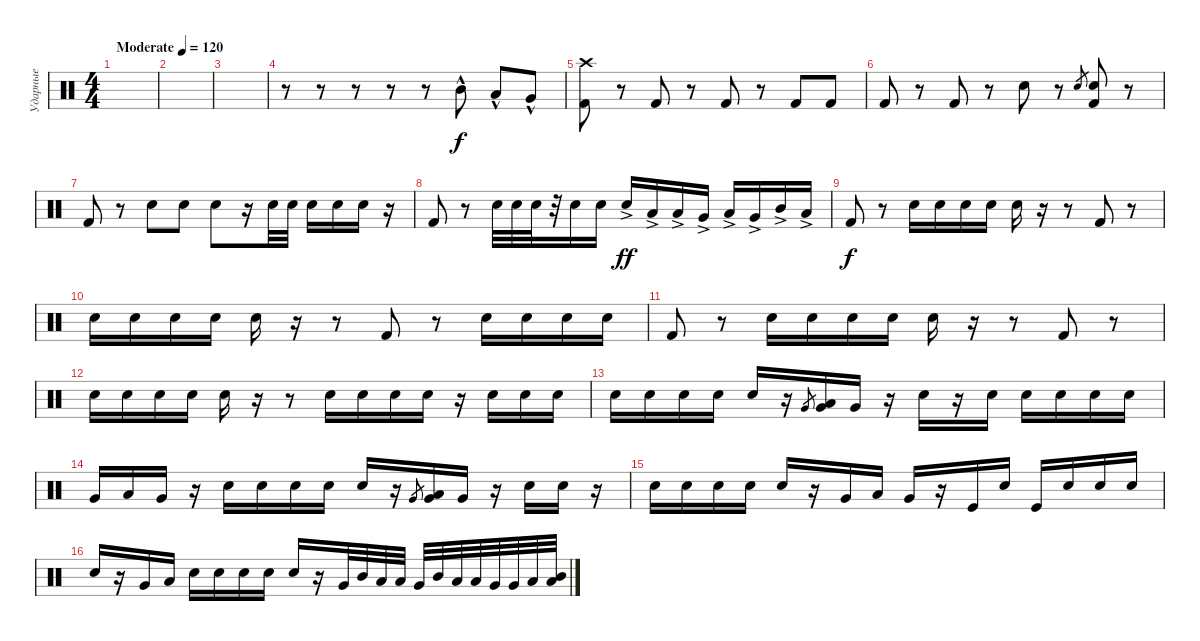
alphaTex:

\track ("Ударные" "Ударные") {instrument percussion}
\staff {score}
\articulation defaults
\ts (4 4)
\tempo (120 "Moderate")
\clef neutral
\ks c
|
|
|
r.8 r.8 r.8 r.8 r.8 "Mid Tom (hit)"{hac}.8 "Low Tom (hit)"{hac}.8 "Very Low Tom (hit)"{hac}.8 |
("Crash high (hit)" "Kick (hit) 2").8{dy f} r.8 "Kick (hit) 2".8 r.8 "Kick (hit) 2".8 r.8 "Kick (hit) 2".8 "Kick (hit) 2".8 |
"Kick (hit) 2".8 r.8 "Kick (hit) 2".8 r.8 "Snare (hit) 2".8 r.8 "Electric Snare (hit)".8{gr} ("Electric Snare (hit)" "Kick (hit) 2").8 r.8 |
"Kick (hit) 2".8 r.8 "Electric Snare (hit)".8 "Electric Snare (hit)".8 "Electric Snare (hit)".8 r.16 "Electric Snare (hit)".32 "Electric Snare (hit)".32 "Electric Snare (hit)".16 "Electric Snare (hit)".16 "Electric Snare (hit)".16 r.16 |
"Kick (hit) 2".8 r.8 "Electric Snare (hit)".32 "Electric Snare (hit)".32 "Electric Snare (hit)".32 r.32 "Electric Snare (hit)".16 "Electric Snare (hit)".16 "Electric Snare (hit)"{ac}.16{dy ff} "Low Floor Tom (hit)"{ac}.16 "Low Tom (hit)"{ac}.16 "Very Low Tom (hit)"{ac}.16 "Low Floor Tom (hit)"{ac}.16 "Very Low Tom (hit)"{ac}.16 "Mid Tom (hit)"{ac}.16 "Low Floor Tom (hit)"{ac}.16 |
"Kick (hit) 2".8{dy f} r.8 "Electric Snare (hit)".16 "Electric Snare (hit)".16 "Electric Snare (hit)".16 "Electric Snare (hit)".16 "Electric Snare (hit)".16 r.16 r.8 "Kick (hit) 2".8 r.8 |
"Electric Snare (hit)".16 "Electric Snare (hit)".16 "Electric Snare (hit)".16 "Electric Snare (hit)".16 "Electric Snare (hit)".16 r.16 r.8 "Kick (hit) 2".8 r.8 "Electric Snare (hit)".16 "Electric Snare (hit)".16 "Electric Snare (hit)".16 "Electric Snare (hit)".16 |
"Kick (hit) 2".8 r.8 "Electric Snare (hit)".16 "Electric Snare (hit)".16 "Electric Snare (hit)".16 "Electric Snare (hit)".16 "Electric Snare (hit)".16 r.16 r.8 "Kick (hit) 2".8 r.8 |
"Electric Snare (hit)".16 "Electric Snare (hit)".16 "Electric Snare (hit)".16 "Electric Snare (hit)".16 "Electric Snare (hit)".16 r.16 r.8 "Electric Snare (hit)".16 "Electric Snare (hit)".16 "Electric Snare (hit)".16 "Electric Snare (hit)".16 r.16 "Electric Snare (hit)".16 "Electric Snare (hit)".16 "Electric Snare (hit)".16 |
"Electric Snare (hit)".16 "Electric Snare (hit)".16 "Electric Snare (hit)".16 "Electric Snare (hit)".16 "Electric Snare (hit)".16 r.16 "Very Low Tom (hit)".8{gr} ("Very Low Tom (hit)" "Low Floor Tom (hit)").16 "Very Low Tom (hit)".16 r.16 "Electric Snare (hit)".16 r.16 "Electric Snare (hit)".16 "Electric Snare (hit)".16 "Electric Snare (hit)".16 "Electric Snare (hit)".16 "Electric Snare (hit)".16 |
"Very Low Tom (hit)".16 "Low Tom (hit)".16 "Very Low Tom (hit)".16 r.16 "Electric Snare (hit)".16 "Electric Snare (hit)".16 "Electric Snare (hit)".16 "Electric Snare (hit)".16 "Electric Snare (hit)".16 r.16 "Very Low Tom (hit)".8{gr} ("Very Low Tom (hit)" "Low Floor Tom (hit)").16 "Very Low Tom (hit)".16 r.16 "Electric Snare (hit)".16 "Electric Snare (hit)".16 r.16 |
"Electric Snare (hit)".16 "Electric Snare (hit)".16 "Electric Snare (hit)".16 "Electric Snare (hit)".16 "Electric Snare (hit)".16 r.16 "Very Low Tom (hit)".16 "Low Tom (hit)".16 "Very Low Tom (hit)".16 r.16 "Kick (hit)".16 "Electric Snare (hit)".16 "Kick (hit)".16 "Electric Snare (hit)".16 "Electric Snare (hit)".16 "Electric Snare (hit)".16 |
"Electric Snare (hit)".16 r.16 "Very Low Tom (hit)".16 "Low Floor Tom (hit)".16 "Electric Snare (hit)".16 "Electric Snare (hit)".16 "Electric Snare (hit)".16 "Electric Snare (hit)".16 "Electric Snare (hit)".16 r.16 "Very Low Tom (hit)".32 "Mid Tom (hit)".32 "Low Tom (hit)".32 "Low Floor Tom (hit)".32 "Very Low Tom (hit)".32 "Mid Tom (hit)".32 "Low Tom (hit)".32 "Low Floor Tom (hit)".32 "Very Low Tom (hit)".32 "Very Low Tom (hit)".32 "Low Floor Tom (hit)".32 ("Mid Tom (hit)" "Low Floor Tom (hit)").32
